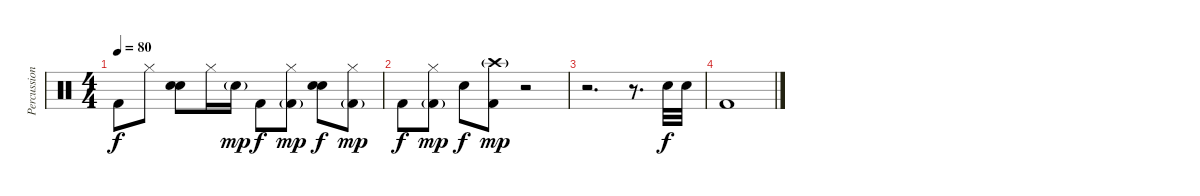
\track ("Percussion" "Percussion") {instrument percussion}
\staff {score}
\articulation defaults
\ts (4 4)
\tempo 80
\clef neutral
\ks c "Kick (hit) 2".8{dy f} "Hi-Hat (closed)".8
("Snare (hit) 2" "Hand Clap (hit)").8 "Hi-Hat (closed)".16 "Snare (hit) 2"{g}.16{dy mp} "Kick (hit) 2".8{dy f} ("Hi-Hat (closed)" "Kick (hit) 2"{g}).8{dy mp} ("Snare (hit) 2" "Hand Clap (hit)").8{dy f} ("Hi-Hat (closed)" "Kick (hit) 2"{g}).8{dy mp} |
"Kick (hit) 2".8{dy f} ("Hi-Hat (closed)" "Kick (hit) 2"{g}).8{dy mp} "Snare (hit) 2".8{dy f} ("Crash high (hit)"{g} "Kick (hit) 2").8{dy mp} r.2 |
r.2{d} r.8{d} "Snare (hit) 2".32{dy f} "Snare (hit) 2".32 |
"Kick (hit) 2".1
